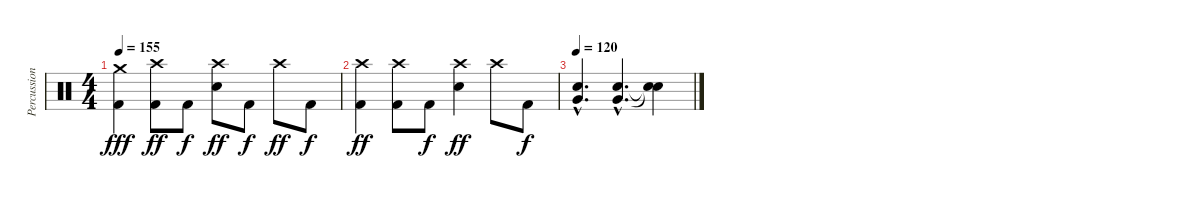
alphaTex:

\track ("Percussions" "Percussion") {instrument percussion}
\staff {score}
\articulation defaults
\ts (4 4)
\tempo 155
\clef neutral
\ks c
("Crash medium (hit)" "Kick (hit) 2").4{dy fff} ("Crash high (hit)" "Kick (hit) 2").8{dy ff} "Kick (hit) 2".8{dy f} ("Crash high (hit)" "Electric Snare (hit)").8{dy ff} "Kick (hit) 2".8{dy f} "Crash high (hit)".8{dy ff} "Kick (hit) 2".8{dy f} |
("Crash high (hit)" "Kick (hit) 2").4{dy ff} ("Crash high (hit)" "Kick (hit) 2").8 "Kick (hit) 2".8{dy f} ("Crash high (hit)" "Electric Snare (hit)").4{dy ff} "Crash high (hit)".8 "Kick (hit) 2".8{dy f} |
\tempo 120
("Very Low Tom (hit)"{hac} "Electric Snare (hit)"{hac}).4{d} ("Very Low Tom (hit)"{hac} "Electric Snare (hit)"{hac}).4{d} ("Snare (hit)"{t} "Snare (hit)"{t}).4
